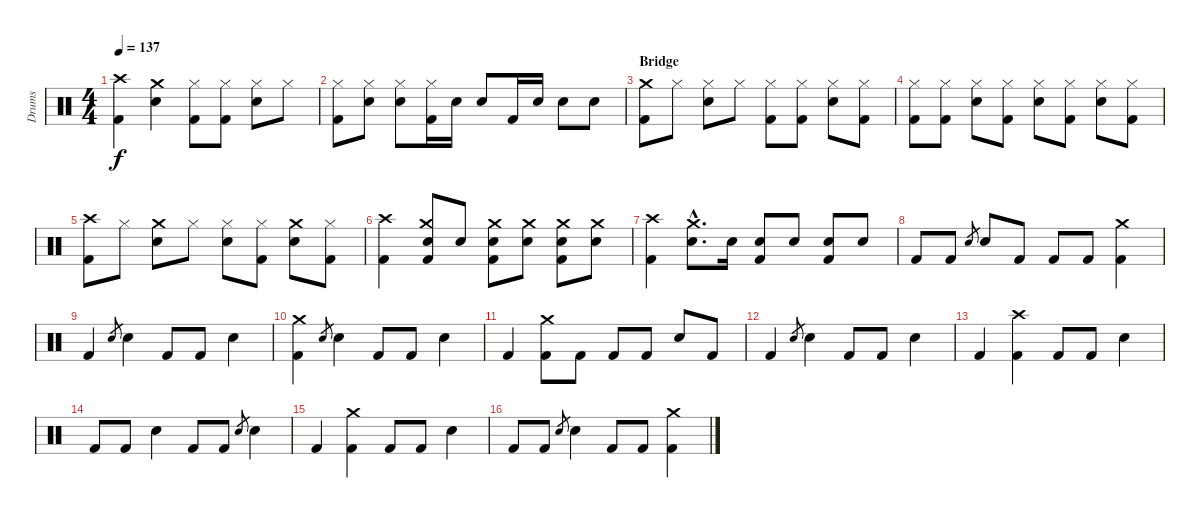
\track ("Drums" "Drums") {instrument percussion}
\staff {score}
\articulation defaults
\ts (4 4)
\tempo 137
\clef neutral
\ks c
("Crash high (hit)" "Kick (hit) 2").4{dy f} ("Crash medium (hit)" "Snare (hit) 2").4 ("Hi-Hat (closed)" "Kick (hit) 2").8 ("Hi-Hat (closed)" "Kick (hit) 2").8 ("Hi-Hat (closed)" "Snare (hit) 2").8 "Hi-Hat (closed)".8 |
("Hi-Hat (closed)" "Kick (hit) 2").8 ("Hi-Hat (closed)" "Snare (hit) 2").8 ("Hi-Hat (closed)" "Snare (hit) 2").8 ("Hi-Hat (closed)" "Kick (hit) 2").16 "Snare (hit) 2".16 "Snare (hit) 2".8 "Kick (hit) 2".16 "Snare (hit) 2".16 "Snare (hit) 2".8 "Snare (hit) 2".8 |
\section ("" "Bridge")
("Crash medium (hit)" "Kick (hit) 2").8 "Hi-Hat (closed)".8 ("Hi-Hat (closed)" "Snare (hit) 2").8 "Hi-Hat (closed)".8 ("Hi-Hat (closed)" "Kick (hit) 2").8 ("Hi-Hat (closed)" "Kick (hit) 2").8 ("Hi-Hat (closed)" "Snare (hit) 2").8 ("Hi-Hat (closed)" "Kick (hit) 2").8 |
("Hi-Hat (closed)" "Kick (hit) 2").8 ("Hi-Hat (closed)" "Kick (hit) 2").8 ("Hi-Hat (closed)" "Snare (hit) 2").8 ("Hi-Hat (closed)" "Kick (hit) 2").8 ("Hi-Hat (closed)" "Snare (hit) 2").8 ("Hi-Hat (closed)" "Kick (hit) 2").8 ("Hi-Hat (closed)" "Snare (hit) 2").8 ("Hi-Hat (closed)" "Kick (hit) 2").8 |
("Crash high (hit)" "Kick (hit) 2").8 "Hi-Hat (closed)".8 ("Crash medium (hit)" "Snare (hit) 2").8 "Hi-Hat (closed)".8 ("Hi-Hat (closed)" "Snare (hit) 2").8 ("Hi-Hat (closed)" "Kick (hit) 2").8 ("Crash medium (hit)" "Snare (hit) 2").8 ("Hi-Hat (closed)" "Kick (hit) 2").8 |
("Crash high (hit)" "Kick (hit) 2").4 ("Crash medium (hit)" "Snare (hit) 2" "Kick (hit) 2").8 "Snare (hit) 2".8 ("Crash medium (hit)" "Snare (hit) 2" "Kick (hit) 2").8 ("Crash medium (hit)" "Snare (hit) 2").8 ("Crash medium (hit)" "Snare (hit) 2" "Kick (hit) 2").8 ("Crash medium (hit)" "Snare (hit) 2").8 |
("Crash high (hit)" "Kick (hit) 2").4 ("Crash medium (hit)"{hac} "Snare (hit) 2"{hac}).8{d} "Snare (hit) 2".16 ("Snare (hit) 2" "Kick (hit) 2").8 "Snare (hit) 2".8 ("Snare (hit) 2" "Kick (hit) 2").8 "Snare (hit) 2".8 |
"Kick (hit) 2".8 "Kick (hit) 2".8 "Snare (hit) 2".8{gr} "Snare (hit) 2".8 "Kick (hit) 2".8 "Kick (hit) 2".8 "Kick (hit) 2".8 ("Crash medium (hit)" "Kick (hit) 2").4 |
"Kick (hit) 2".4 "Snare (hit) 2".8{gr} "Snare (hit) 2".4 "Kick (hit) 2".8 "Kick (hit) 2".8 "Snare (hit) 2".4 |
("Crash medium (hit)" "Kick (hit) 2").4 "Snare (hit) 2".8{gr} "Snare (hit) 2".4 "Kick (hit) 2".8 "Kick (hit) 2".8 "Snare (hit) 2".4 |
"Kick (hit) 2".4 ("Crash medium (hit)" "Kick (hit) 2").8 "Kick (hit) 2".8 "Kick (hit) 2".8 "Kick (hit) 2".8 "Snare (hit) 2".8 "Kick (hit) 2".8 |
"Kick (hit) 2".4 "Snare (hit) 2".8{gr} "Snare (hit) 2".4 "Kick (hit) 2".8 "Kick (hit) 2".8 "Snare (hit) 2".4 |
"Kick (hit) 2".4 ("Crash high (hit)" "Kick (hit) 2").4 "Kick (hit) 2".8 "Kick (hit) 2".8 "Snare (hit) 2".4 |
"Kick (hit) 2".8 "Kick (hit) 2".8 "Snare (hit) 2".4 "Kick (hit) 2".8 "Kick (hit) 2".8 "Snare (hit) 2".8{gr} "Snare (hit) 2".4 |
"Kick (hit) 2".4 ("Crash medium (hit)" "Kick (hit) 2").4 "Kick (hit) 2".8 "Kick (hit) 2".8 "Snare (hit) 2".4 |
"Kick (hit) 2".8 "Kick (hit) 2".8 "Snare (hit) 2".8{gr} "Snare (hit) 2".4 "Kick (hit) 2".8 "Kick (hit) 2".8 ("Crash medium (hit)" "Kick (hit) 2").4
